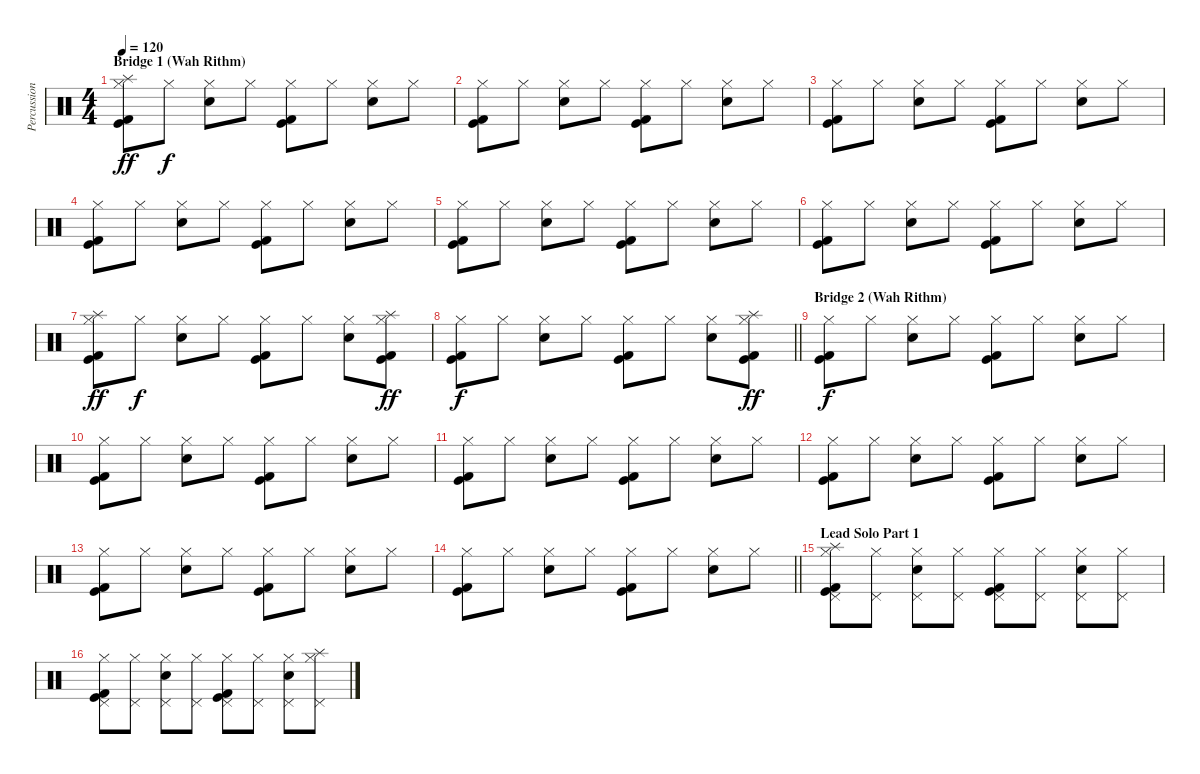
\track ("Percussion" "Percussion") {instrument percussion}
\staff {score}
\articulation defaults
\ts (4 4)
\section ("" "Bridge 1 (Wah Rithm)")
\tempo 120
\clef neutral
\ks c
("Splash (hit)" "Hi-Hat (closed)" "Kick (hit)" "Kick (hit) 2").8{dy ff} "Hi-Hat (closed)".8{dy f} ("Snare (hit) 2" "Hi-Hat (closed)").8 "Hi-Hat (closed)".8 ("Hi-Hat (closed)" "Kick (hit)" "Kick (hit) 2").8 "Hi-Hat (closed)".8 ("Snare (hit) 2" "Hi-Hat (closed)").8 "Hi-Hat (closed)".8 |
("Hi-Hat (closed)" "Kick (hit)" "Kick (hit) 2").8 "Hi-Hat (closed)".8 ("Snare (hit) 2" "Hi-Hat (closed)").8 "Hi-Hat (closed)".8 ("Hi-Hat (closed)" "Kick (hit)" "Kick (hit) 2").8 "Hi-Hat (closed)".8 ("Snare (hit) 2" "Hi-Hat (closed)").8 "Hi-Hat (closed)".8 |
("Hi-Hat (closed)" "Kick (hit)" "Kick (hit) 2").8 "Hi-Hat (closed)".8 ("Snare (hit) 2" "Hi-Hat (closed)").8 "Hi-Hat (closed)".8 ("Hi-Hat (closed)" "Kick (hit)" "Kick (hit) 2").8 "Hi-Hat (closed)".8 ("Snare (hit) 2" "Hi-Hat (closed)").8 "Hi-Hat (closed)".8 |
("Hi-Hat (closed)" "Kick (hit)" "Kick (hit) 2").8 "Hi-Hat (closed)".8 ("Snare (hit) 2" "Hi-Hat (closed)").8 "Hi-Hat (closed)".8 ("Hi-Hat (closed)" "Kick (hit)" "Kick (hit) 2").8 "Hi-Hat (closed)".8 ("Snare (hit) 2" "Hi-Hat (closed)").8 "Hi-Hat (closed)".8 |
("Hi-Hat (closed)" "Kick (hit)" "Kick (hit) 2").8 "Hi-Hat (closed)".8 ("Snare (hit) 2" "Hi-Hat (closed)").8 "Hi-Hat (closed)".8 ("Hi-Hat (closed)" "Kick (hit)" "Kick (hit) 2").8 "Hi-Hat (closed)".8 ("Snare (hit) 2" "Hi-Hat (closed)").8 "Hi-Hat (closed)".8 |
("Hi-Hat (closed)" "Kick (hit)" "Kick (hit) 2").8 "Hi-Hat (closed)".8 ("Snare (hit) 2" "Hi-Hat (closed)").8 "Hi-Hat (closed)".8 ("Hi-Hat (closed)" "Kick (hit)" "Kick (hit) 2").8 "Hi-Hat (closed)".8 ("Snare (hit) 2" "Hi-Hat (closed)").8 "Hi-Hat (closed)".8 |
("Splash (hit)" "Hi-Hat (closed)" "Kick (hit)" "Kick (hit) 2").8{dy ff} "Hi-Hat (closed)".8{dy f} ("Snare (hit) 2" "Hi-Hat (closed)").8 "Hi-Hat (closed)".8 ("Hi-Hat (closed)" "Kick (hit)" "Kick (hit) 2").8 "Hi-Hat (closed)".8 ("Snare (hit) 2" "Hi-Hat (closed)").8 ("Splash (hit)" "Hi-Hat (closed)" "Kick (hit)" "Kick (hit) 2").8{dy ff} |
\barLineRight lightlight
("Hi-Hat (closed)" "Kick (hit)" "Kick (hit) 2").8{dy f} "Hi-Hat (closed)".8 ("Snare (hit) 2" "Hi-Hat (closed)").8 "Hi-Hat (closed)".8 ("Hi-Hat (closed)" "Kick (hit)" "Kick (hit) 2").8 "Hi-Hat (closed)".8 ("Snare (hit) 2" "Hi-Hat (closed)").8 ("Splash (hit)" "Hi-Hat (closed)" "Kick (hit)" "Kick (hit) 2").8{dy ff} |
\section ("" "Bridge 2 (Wah Rithm)")
("Hi-Hat (closed)" "Kick (hit)" "Kick (hit) 2").8{dy f} "Hi-Hat (closed)".8 ("Snare (hit) 2" "Hi-Hat (closed)").8 "Hi-Hat (closed)".8 ("Hi-Hat (closed)" "Kick (hit)" "Kick (hit) 2").8 "Hi-Hat (closed)".8 ("Snare (hit) 2" "Hi-Hat (closed)").8 "Hi-Hat (closed)".8 |
("Hi-Hat (closed)" "Kick (hit)" "Kick (hit) 2").8 "Hi-Hat (closed)".8 ("Snare (hit) 2" "Hi-Hat (closed)").8 "Hi-Hat (closed)".8 ("Hi-Hat (closed)" "Kick (hit)" "Kick (hit) 2").8 "Hi-Hat (closed)".8 ("Snare (hit) 2" "Hi-Hat (closed)").8 "Hi-Hat (closed)".8 |
("Hi-Hat (closed)" "Kick (hit)" "Kick (hit) 2").8 "Hi-Hat (closed)".8 ("Snare (hit) 2" "Hi-Hat (closed)").8 "Hi-Hat (closed)".8 ("Hi-Hat (closed)" "Kick (hit)" "Kick (hit) 2").8 "Hi-Hat (closed)".8 ("Snare (hit) 2" "Hi-Hat (closed)").8 "Hi-Hat (closed)".8 |
("Hi-Hat (closed)" "Kick (hit)" "Kick (hit) 2").8 "Hi-Hat (closed)".8 ("Snare (hit) 2" "Hi-Hat (closed)").8 "Hi-Hat (closed)".8 ("Hi-Hat (closed)" "Kick (hit)" "Kick (hit) 2").8 "Hi-Hat (closed)".8 ("Snare (hit) 2" "Hi-Hat (closed)").8 "Hi-Hat (closed)".8 |
("Hi-Hat (closed)" "Kick (hit)" "Kick (hit) 2").8 "Hi-Hat (closed)".8 ("Snare (hit) 2" "Hi-Hat (closed)").8 "Hi-Hat (closed)".8 ("Hi-Hat (closed)" "Kick (hit)" "Kick (hit) 2").8 "Hi-Hat (closed)".8 ("Snare (hit) 2" "Hi-Hat (closed)").8 "Hi-Hat (closed)".8 |
\barLineRight lightlight
("Hi-Hat (closed)" "Kick (hit)" "Kick (hit) 2").8 "Hi-Hat (closed)".8 ("Snare (hit) 2" "Hi-Hat (closed)").8 "Hi-Hat (closed)".8 ("Hi-Hat (closed)" "Kick (hit)" "Kick (hit) 2").8 "Hi-Hat (closed)".8 ("Snare (hit) 2" "Hi-Hat (closed)").8 "Hi-Hat (closed)".8 |
\section ("" "Lead Solo Part 1")
("Splash (hit)" "Pedal Hi-Hat (hit)" "Hi-Hat (closed)" "Kick (hit)" "Kick (hit) 2").8 ("Pedal Hi-Hat (hit)" "Hi-Hat (closed)").8 ("Snare (hit) 2" "Pedal Hi-Hat (hit)" "Hi-Hat (closed)").8 ("Pedal Hi-Hat (hit)" "Hi-Hat (closed)").8 ("Pedal Hi-Hat (hit)" "Hi-Hat (closed)" "Kick (hit)" "Kick (hit) 2").8 ("Pedal Hi-Hat (hit)" "Hi-Hat (closed)").8 ("Snare (hit) 2" "Pedal Hi-Hat (hit)" "Hi-Hat (closed)").8 ("Pedal Hi-Hat (hit)" "Hi-Hat (closed)").8 |
("Pedal Hi-Hat (hit)" "Hi-Hat (closed)" "Kick (hit)" "Kick (hit) 2").8 ("Pedal Hi-Hat (hit)" "Hi-Hat (closed)").8 ("Snare (hit) 2" "Pedal Hi-Hat (hit)" "Hi-Hat (closed)").8 ("Pedal Hi-Hat (hit)" "Hi-Hat (closed)").8 ("Pedal Hi-Hat (hit)" "Hi-Hat (closed)" "Kick (hit)" "Kick (hit) 2").8 ("Pedal Hi-Hat (hit)" "Hi-Hat (closed)").8 ("Snare (hit) 2" "Pedal Hi-Hat (hit)" "Hi-Hat (closed)").8 ("Splash (hit)" "Pedal Hi-Hat (hit)" "Hi-Hat (closed)").8
